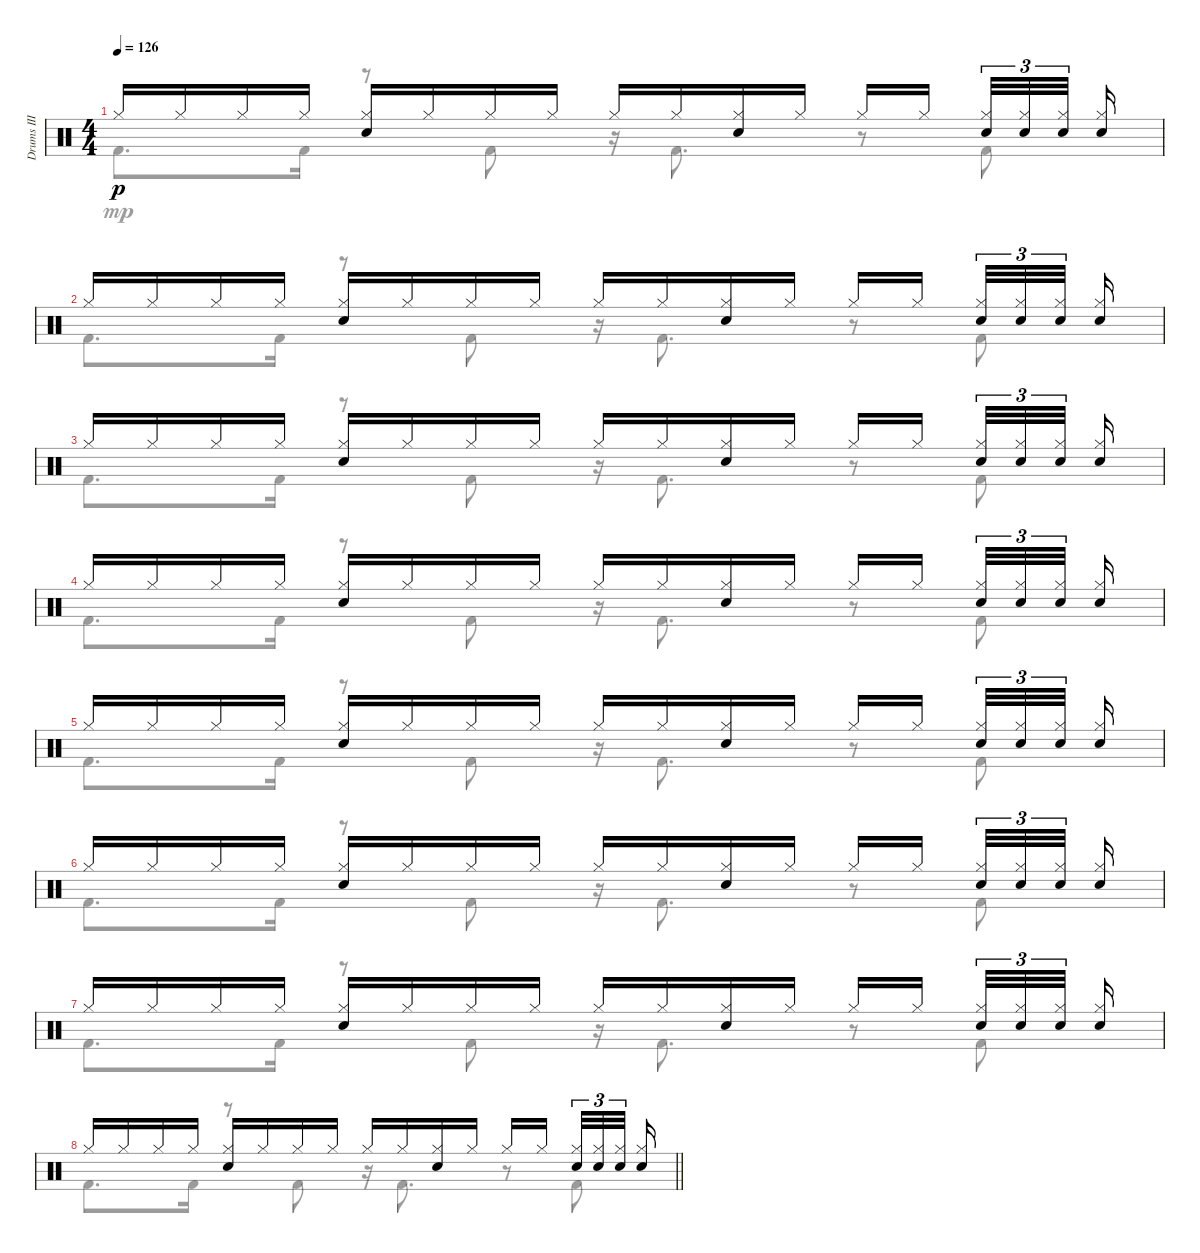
\track ("Drums III" "Drums III") {instrument percussion}
\staff {score}
\articulation defaults
\voice
\ts (4 4)
\tempo 126
\clef neutral
\ks c "Hi-Hat (closed)".16{dy p} "Hi-Hat (closed)".16 "Hi-Hat (closed)".16 "Hi-Hat (closed)".16
("Hi-Hat (closed)" "Electric Snare (hit)").16 "Hi-Hat (closed)".16 "Hi-Hat (closed)".16 "Hi-Hat (closed)".16 "Hi-Hat (closed)".16 "Hi-Hat (closed)".16 ("Hi-Hat (closed)" "Electric Snare (hit)").16 "Hi-Hat (closed)".16 "Hi-Hat (closed)".16 "Hi-Hat (closed)".16{beam splitsecondary} ("Hi-Hat (closed)" "Electric Snare (hit)").32{tu (3 2)} ("Hi-Hat (closed)" "Electric Snare (hit)").32{tu (3 2)} ("Hi-Hat (closed)" "Electric Snare (hit)").32{tu (3 2) beam splitsecondary} ("Hi-Hat (closed)" "Electric Snare (hit)").16 |
"Hi-Hat (closed)".16 "Hi-Hat (closed)".16 "Hi-Hat (closed)".16 "Hi-Hat (closed)".16 ("Hi-Hat (closed)" "Electric Snare (hit)").16 "Hi-Hat (closed)".16 "Hi-Hat (closed)".16 "Hi-Hat (closed)".16 "Hi-Hat (closed)".16 "Hi-Hat (closed)".16 ("Hi-Hat (closed)" "Electric Snare (hit)").16 "Hi-Hat (closed)".16 "Hi-Hat (closed)".16 "Hi-Hat (closed)".16{beam splitsecondary} ("Hi-Hat (closed)" "Electric Snare (hit)").32{tu (3 2)} ("Hi-Hat (closed)" "Electric Snare (hit)").32{tu (3 2)} ("Hi-Hat (closed)" "Electric Snare (hit)").32{tu (3 2) beam splitsecondary} ("Hi-Hat (closed)" "Electric Snare (hit)").16 |
"Hi-Hat (closed)".16 "Hi-Hat (closed)".16 "Hi-Hat (closed)".16 "Hi-Hat (closed)".16 ("Hi-Hat (closed)" "Electric Snare (hit)").16 "Hi-Hat (closed)".16 "Hi-Hat (closed)".16 "Hi-Hat (closed)".16 "Hi-Hat (closed)".16 "Hi-Hat (closed)".16 ("Hi-Hat (closed)" "Electric Snare (hit)").16 "Hi-Hat (closed)".16 "Hi-Hat (closed)".16 "Hi-Hat (closed)".16{beam splitsecondary} ("Hi-Hat (closed)" "Electric Snare (hit)").32{tu (3 2)} ("Hi-Hat (closed)" "Electric Snare (hit)").32{tu (3 2)} ("Hi-Hat (closed)" "Electric Snare (hit)").32{tu (3 2) beam splitsecondary} ("Hi-Hat (closed)" "Electric Snare (hit)").16 |
"Hi-Hat (closed)".16 "Hi-Hat (closed)".16 "Hi-Hat (closed)".16 "Hi-Hat (closed)".16 ("Hi-Hat (closed)" "Electric Snare (hit)").16 "Hi-Hat (closed)".16 "Hi-Hat (closed)".16 "Hi-Hat (closed)".16 "Hi-Hat (closed)".16 "Hi-Hat (closed)".16 ("Hi-Hat (closed)" "Electric Snare (hit)").16 "Hi-Hat (closed)".16 "Hi-Hat (closed)".16 "Hi-Hat (closed)".16{beam splitsecondary} ("Hi-Hat (closed)" "Electric Snare (hit)").32{tu (3 2)} ("Hi-Hat (closed)" "Electric Snare (hit)").32{tu (3 2)} ("Hi-Hat (closed)" "Electric Snare (hit)").32{tu (3 2) beam splitsecondary} ("Hi-Hat (closed)" "Electric Snare (hit)").16 |
"Hi-Hat (closed)".16 "Hi-Hat (closed)".16 "Hi-Hat (closed)".16 "Hi-Hat (closed)".16 ("Hi-Hat (closed)" "Electric Snare (hit)").16 "Hi-Hat (closed)".16 "Hi-Hat (closed)".16 "Hi-Hat (closed)".16 "Hi-Hat (closed)".16 "Hi-Hat (closed)".16 ("Hi-Hat (closed)" "Electric Snare (hit)").16 "Hi-Hat (closed)".16 "Hi-Hat (closed)".16 "Hi-Hat (closed)".16{beam splitsecondary} ("Hi-Hat (closed)" "Electric Snare (hit)").32{tu (3 2)} ("Hi-Hat (closed)" "Electric Snare (hit)").32{tu (3 2)} ("Hi-Hat (closed)" "Electric Snare (hit)").32{tu (3 2) beam splitsecondary} ("Hi-Hat (closed)" "Electric Snare (hit)").16 |
"Hi-Hat (closed)".16 "Hi-Hat (closed)".16 "Hi-Hat (closed)".16 "Hi-Hat (closed)".16 ("Hi-Hat (closed)" "Electric Snare (hit)").16 "Hi-Hat (closed)".16 "Hi-Hat (closed)".16 "Hi-Hat (closed)".16 "Hi-Hat (closed)".16 "Hi-Hat (closed)".16 ("Hi-Hat (closed)" "Electric Snare (hit)").16 "Hi-Hat (closed)".16 "Hi-Hat (closed)".16 "Hi-Hat (closed)".16{beam splitsecondary} ("Hi-Hat (closed)" "Electric Snare (hit)").32{tu (3 2)} ("Hi-Hat (closed)" "Electric Snare (hit)").32{tu (3 2)} ("Hi-Hat (closed)" "Electric Snare (hit)").32{tu (3 2) beam splitsecondary} ("Hi-Hat (closed)" "Electric Snare (hit)").16 |
"Hi-Hat (closed)".16 "Hi-Hat (closed)".16 "Hi-Hat (closed)".16 "Hi-Hat (closed)".16 ("Hi-Hat (closed)" "Electric Snare (hit)").16 "Hi-Hat (closed)".16 "Hi-Hat (closed)".16 "Hi-Hat (closed)".16 "Hi-Hat (closed)".16 "Hi-Hat (closed)".16 ("Hi-Hat (closed)" "Electric Snare (hit)").16 "Hi-Hat (closed)".16 "Hi-Hat (closed)".16 "Hi-Hat (closed)".16{beam splitsecondary} ("Hi-Hat (closed)" "Electric Snare (hit)").32{tu (3 2)} ("Hi-Hat (closed)" "Electric Snare (hit)").32{tu (3 2)} ("Hi-Hat (closed)" "Electric Snare (hit)").32{tu (3 2) beam splitsecondary} ("Hi-Hat (closed)" "Electric Snare (hit)").16 |
\barLineRight lightlight "Hi-Hat (closed)".16 "Hi-Hat (closed)".16 "Hi-Hat (closed)".16 "Hi-Hat (closed)".16
("Hi-Hat (closed)" "Electric Snare (hit)").16 "Hi-Hat (closed)".16 "Hi-Hat (closed)".16 "Hi-Hat (closed)".16 "Hi-Hat (closed)".16 "Hi-Hat (closed)".16 ("Hi-Hat (closed)" "Electric Snare (hit)").16 "Hi-Hat (closed)".16 "Hi-Hat (closed)".16 "Hi-Hat (closed)".16{beam splitsecondary} ("Hi-Hat (closed)" "Electric Snare (hit)").32{tu (3 2)} ("Hi-Hat (closed)" "Electric Snare (hit)").32{tu (3 2)} ("Hi-Hat (closed)" "Electric Snare (hit)").32{tu (3 2) beam splitsecondary} ("Hi-Hat (closed)" "Electric Snare (hit)").16
\voice
\clef neutral
\ottava regular
\simile none
\ks c "Kick (hit) 2".8{d dy mp} "Kick (hit) 2".16
r.8 "Kick (hit) 2".8 r.16 "Kick (hit) 2".8{d} r.8 "Kick (hit) 2".8 |
"Kick (hit) 2".8{d} "Kick (hit) 2".16 r.8 "Kick (hit) 2".8 r.16 "Kick (hit) 2".8{d} r.8 "Kick (hit) 2".8 |
"Kick (hit) 2".8{d} "Kick (hit) 2".16 r.8 "Kick (hit) 2".8 r.16 "Kick (hit) 2".8{d} r.8 "Kick (hit) 2".8 |
"Kick (hit) 2".8{d} "Kick (hit) 2".16 r.8 "Kick (hit) 2".8 r.16 "Kick (hit) 2".8{d} r.8 "Kick (hit) 2".8 |
"Kick (hit) 2".8{d} "Kick (hit) 2".16 r.8 "Kick (hit) 2".8 r.16 "Kick (hit) 2".8{d} r.8 "Kick (hit) 2".8 |
"Kick (hit) 2".8{d} "Kick (hit) 2".16 r.8 "Kick (hit) 2".8 r.16 "Kick (hit) 2".8{d} r.8 "Kick (hit) 2".8 |
"Kick (hit) 2".8{d} "Kick (hit) 2".16 r.8 "Kick (hit) 2".8 r.16 "Kick (hit) 2".8{d} r.8 "Kick (hit) 2".8 |
\barLineRight lightlight "Kick (hit) 2".8{d} "Kick (hit) 2".16
r.8 "Kick (hit) 2".8 r.16 "Kick (hit) 2".8{d} r.8 "Kick (hit) 2".8
